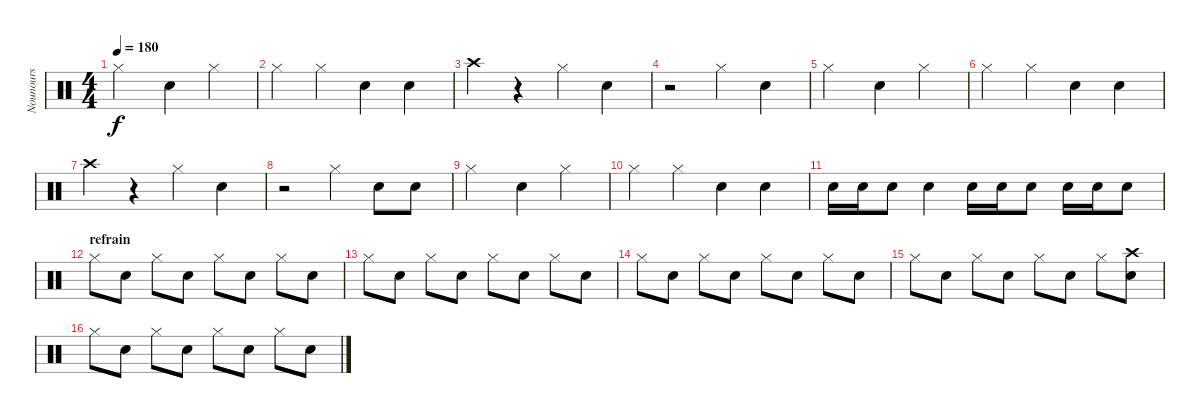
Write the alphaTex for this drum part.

\track ("Nounours" "Nounours") {instrument percussion}
\staff {score}
\articulation defaults
\ts (4 4)
\tempo 180
\clef neutral
\ks c "Hi-Hat (closed)".2{dy f} "Snare (hit) 2".4 "Hi-Hat (closed)".4
|
"Hi-Hat (closed)".4 "Hi-Hat (closed)".4 "Snare (hit) 2".4 "Snare (hit) 2".4 |
"Crash high (hit)".4 r.4 "Hi-Hat (closed)".4 "Snare (hit) 2".4 |
r.2 "Hi-Hat (closed)".4 "Snare (hit) 2".4 |
"Hi-Hat (closed)".2 "Snare (hit) 2".4 "Hi-Hat (closed)".4 |
"Hi-Hat (closed)".4 "Hi-Hat (closed)".4 "Snare (hit) 2".4 "Snare (hit) 2".4 |
"Crash high (hit)".4 r.4 "Hi-Hat (closed)".4 "Snare (hit) 2".4 |
r.2 "Hi-Hat (closed)".4 "Snare (hit) 2".8 "Snare (hit) 2".8 |
"Hi-Hat (closed)".2 "Snare (hit) 2".4 "Hi-Hat (closed)".4 |
"Hi-Hat (closed)".4 "Hi-Hat (closed)".4 "Snare (hit) 2".4 "Snare (hit) 2".4 |
"Snare (hit) 2".16 "Snare (hit) 2".16 "Snare (hit) 2".8 "Snare (hit) 2".4 "Snare (hit) 2".16 "Snare (hit) 2".16 "Snare (hit) 2".8 "Snare (hit) 2".16 "Snare (hit) 2".16 "Snare (hit) 2".8 |
\section ("" "refrain")
"Hi-Hat (closed)".8 "Snare (hit) 2".8 "Hi-Hat (closed)".8 "Snare (hit) 2".8 "Hi-Hat (closed)".8 "Snare (hit) 2".8 "Hi-Hat (closed)".8 "Snare (hit) 2".8 |
"Hi-Hat (closed)".8 "Snare (hit) 2".8 "Hi-Hat (closed)".8 "Snare (hit) 2".8 "Hi-Hat (closed)".8 "Snare (hit) 2".8 "Hi-Hat (closed)".8 "Snare (hit) 2".8 |
"Hi-Hat (closed)".8 "Snare (hit) 2".8 "Hi-Hat (closed)".8 "Snare (hit) 2".8 "Hi-Hat (closed)".8 "Snare (hit) 2".8 "Hi-Hat (closed)".8 "Snare (hit) 2".8 |
"Hi-Hat (closed)".8 "Snare (hit) 2".8 "Hi-Hat (closed)".8 "Snare (hit) 2".8 "Hi-Hat (closed)".8 "Snare (hit) 2".8 "Hi-Hat (closed)".8 ("Crash high (hit)" "Snare (hit) 2").8 |
"Hi-Hat (closed)".8 "Snare (hit) 2".8 "Hi-Hat (closed)".8 "Snare (hit) 2".8 "Hi-Hat (closed)".8 "Snare (hit) 2".8 "Hi-Hat (closed)".8 "Snare (hit) 2".8
